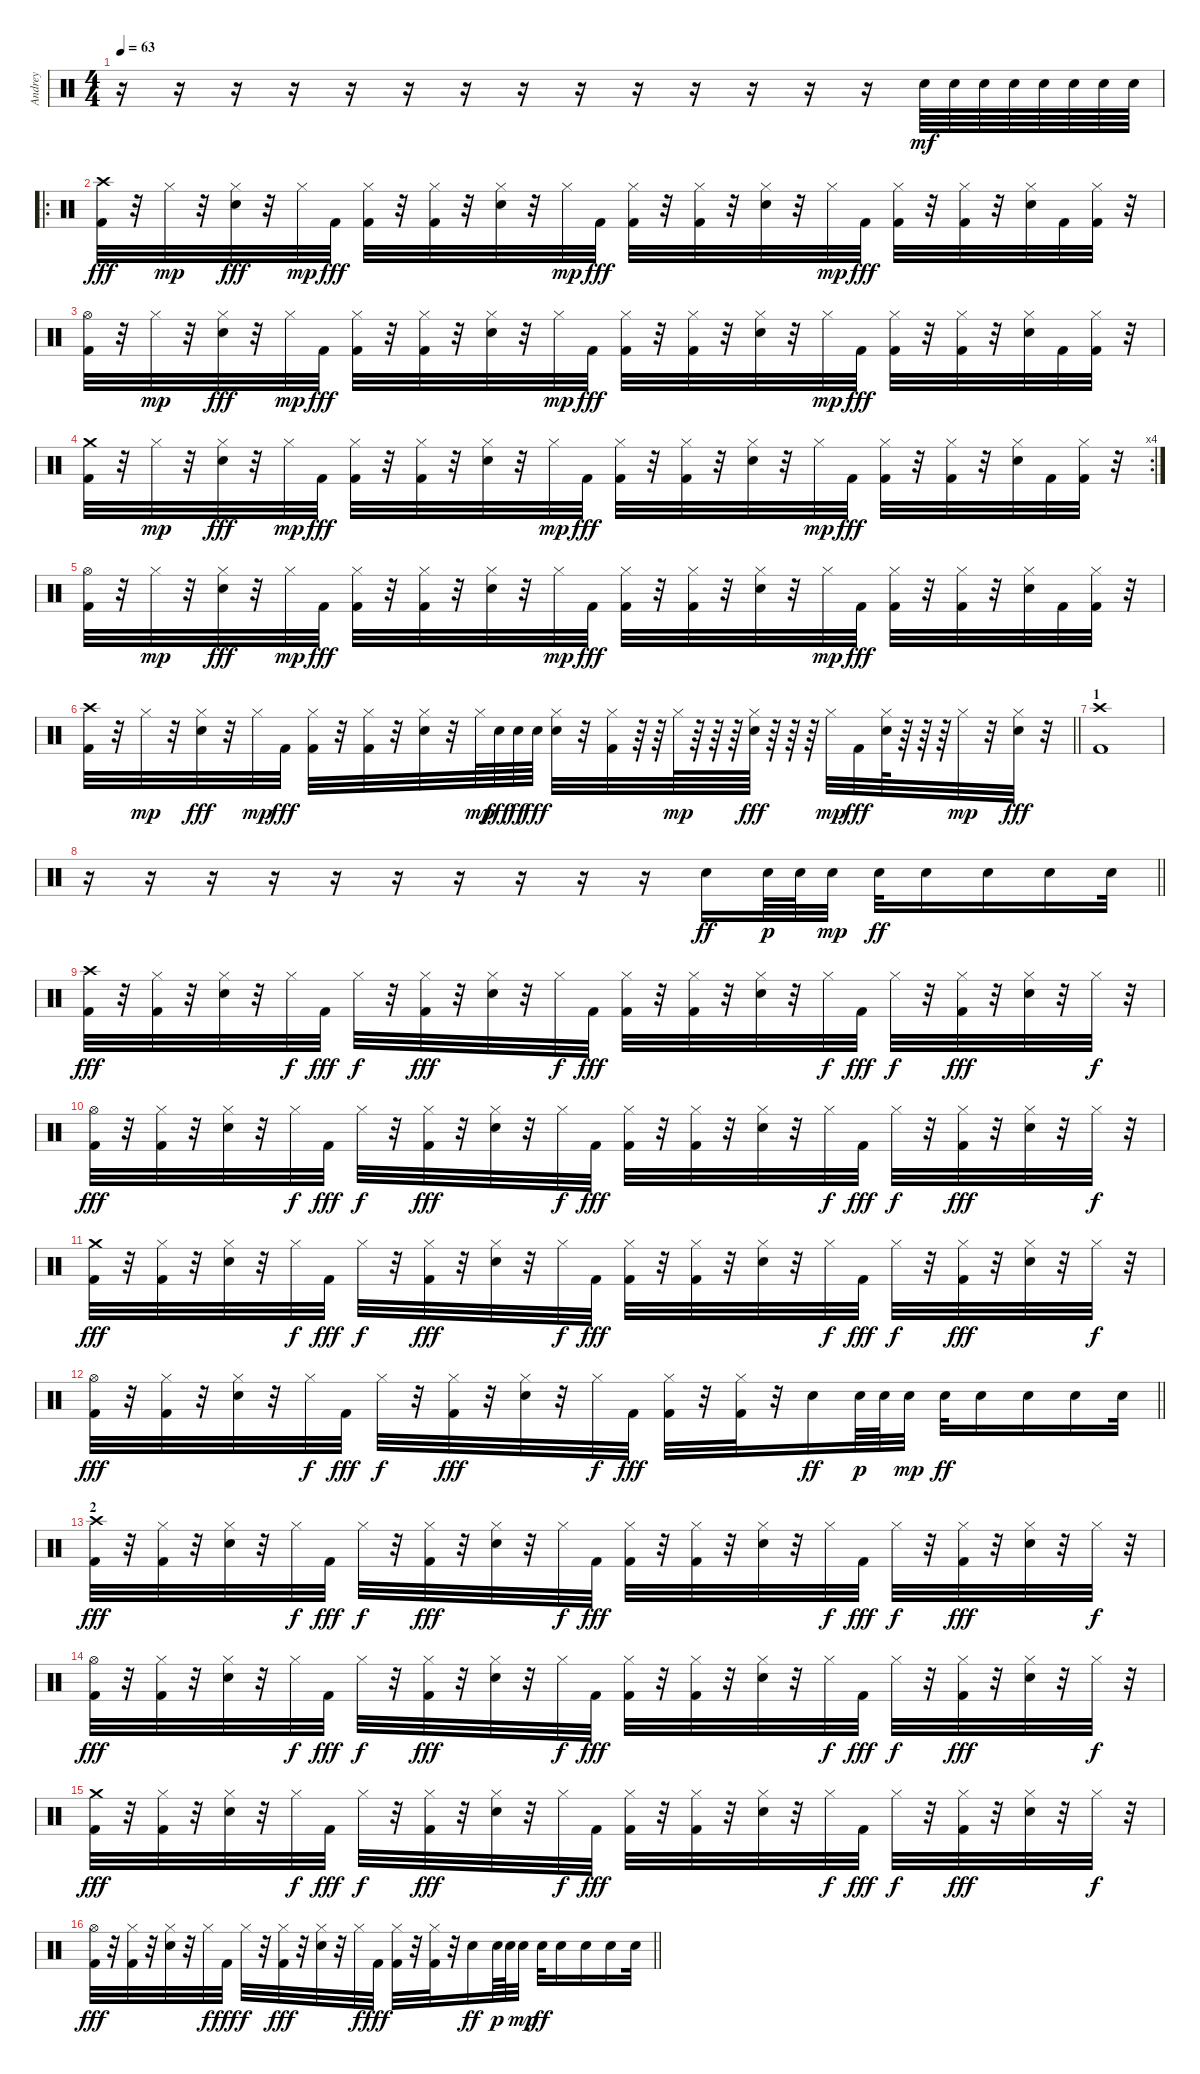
\track ("Andrey" "Andrey") {instrument percussion}
\staff {score}
\articulation defaults
\ts (4 4)
\tempo 63
\clef neutral
\ks c
r.16{dy ff} r.16 r.16 r.16 r.16 r.16 r.16 r.16 r.16 r.16 r.16 r.16 r.16 r.16 "Electric Snare (hit)".64{dy mf} "Electric Snare (hit)".64 "Electric Snare (hit)".64 "Electric Snare (hit)".64 "Electric Snare (hit)".64 "Electric Snare (hit)".64 "Electric Snare (hit)".64 "Electric Snare (hit)".64 |
\ro
("Crash high (hit)" "Kick (hit) 2").32{dy fff} r.32 "Hi-Hat (closed)".32{dy mp} r.32 ("Hi-Hat (closed)" "Snare (hit) 2").32{dy fff} r.32 "Hi-Hat (closed)".32{dy mp} "Kick (hit) 2".32{dy fff} ("Hi-Hat (closed)" "Kick (hit) 2").32 r.32 ("Hi-Hat (closed)" "Kick (hit) 2").32 r.32 ("Hi-Hat (closed)" "Snare (hit) 2").32 r.32 "Hi-Hat (closed)".32{dy mp} "Kick (hit) 2".32{dy fff} ("Hi-Hat (closed)" "Kick (hit) 2").32 r.32 ("Hi-Hat (closed)" "Kick (hit) 2").32 r.32 ("Hi-Hat (closed)" "Snare (hit) 2").32 r.32 "Hi-Hat (closed)".32{dy mp} "Kick (hit) 2".32{dy fff} ("Hi-Hat (closed)" "Kick (hit) 2").32 r.32 ("Hi-Hat (closed)" "Kick (hit) 2").32 r.32 ("Hi-Hat (closed)" "Snare (hit) 2").32 "Kick (hit) 2".32 ("Hi-Hat (closed)" "Kick (hit) 2").32 r.32 |
("Hi-Hat (open)" "Kick (hit) 2").32 r.32 "Hi-Hat (closed)".32{dy mp} r.32 ("Hi-Hat (closed)" "Snare (hit) 2").32{dy fff} r.32 "Hi-Hat (closed)".32{dy mp} "Kick (hit) 2".32{dy fff} ("Hi-Hat (closed)" "Kick (hit) 2").32 r.32 ("Hi-Hat (closed)" "Kick (hit) 2").32 r.32 ("Hi-Hat (closed)" "Snare (hit) 2").32 r.32 "Hi-Hat (closed)".32{dy mp} "Kick (hit) 2".32{dy fff} ("Hi-Hat (closed)" "Kick (hit) 2").32 r.32 ("Hi-Hat (closed)" "Kick (hit) 2").32 r.32 ("Hi-Hat (closed)" "Snare (hit) 2").32 r.32 "Hi-Hat (closed)".32{dy mp} "Kick (hit) 2".32{dy fff} ("Hi-Hat (closed)" "Kick (hit) 2").32 r.32 ("Hi-Hat (closed)" "Kick (hit) 2").32 r.32 ("Hi-Hat (closed)" "Snare (hit) 2").32 "Kick (hit) 2".32 ("Hi-Hat (closed)" "Kick (hit) 2").32 r.32 |
\rc 4
("Crash medium (hit)" "Kick (hit) 2").32 r.32 "Hi-Hat (closed)".32{dy mp} r.32 ("Hi-Hat (closed)" "Snare (hit) 2").32{dy fff} r.32 "Hi-Hat (closed)".32{dy mp} "Kick (hit) 2".32{dy fff} ("Hi-Hat (closed)" "Kick (hit) 2").32 r.32 ("Hi-Hat (closed)" "Kick (hit) 2").32 r.32 ("Hi-Hat (closed)" "Snare (hit) 2").32 r.32 "Hi-Hat (closed)".32{dy mp} "Kick (hit) 2".32{dy fff} ("Hi-Hat (closed)" "Kick (hit) 2").32 r.32 ("Hi-Hat (closed)" "Kick (hit) 2").32 r.32 ("Hi-Hat (closed)" "Snare (hit) 2").32 r.32 "Hi-Hat (closed)".32{dy mp} "Kick (hit) 2".32{dy fff} ("Hi-Hat (closed)" "Kick (hit) 2").32 r.32 ("Hi-Hat (closed)" "Kick (hit) 2").32 r.32 ("Hi-Hat (closed)" "Snare (hit) 2").32 "Kick (hit) 2".32 ("Hi-Hat (closed)" "Kick (hit) 2").32 r.32 |
("Hi-Hat (open)" "Kick (hit) 2").32 r.32 "Hi-Hat (closed)".32{dy mp} r.32 ("Hi-Hat (closed)" "Snare (hit) 2").32{dy fff} r.32 "Hi-Hat (closed)".32{dy mp} "Kick (hit) 2".32{dy fff} ("Hi-Hat (closed)" "Kick (hit) 2").32 r.32 ("Hi-Hat (closed)" "Kick (hit) 2").32 r.32 ("Hi-Hat (closed)" "Snare (hit) 2").32 r.32 "Hi-Hat (closed)".32{dy mp} "Kick (hit) 2".32{dy fff} ("Hi-Hat (closed)" "Kick (hit) 2").32 r.32 ("Hi-Hat (closed)" "Kick (hit) 2").32 r.32 ("Hi-Hat (closed)" "Snare (hit) 2").32 r.32 "Hi-Hat (closed)".32{dy mp} "Kick (hit) 2".32{dy fff} ("Hi-Hat (closed)" "Kick (hit) 2").32 r.32 ("Hi-Hat (closed)" "Kick (hit) 2").32 r.32 ("Hi-Hat (closed)" "Snare (hit) 2").32 "Kick (hit) 2".32 ("Hi-Hat (closed)" "Kick (hit) 2").32 r.32 |
\barLineRight lightlight
("Crash high (hit)" "Kick (hit) 2").32 r.32 "Hi-Hat (closed)".32{dy mp} r.32 ("Hi-Hat (closed)" "Snare (hit) 2").32{dy fff} r.32 "Hi-Hat (closed)".32{dy mp} "Kick (hit) 2".32{dy fff} ("Hi-Hat (closed)" "Kick (hit) 2").32 r.32 ("Hi-Hat (closed)" "Kick (hit) 2").32 r.32 ("Hi-Hat (closed)" "Snare (hit) 2").32 r.32 "Hi-Hat (closed)".64{dy mp} "Snare (hit) 2".64{dy fff} "Snare (hit) 2".64{dy ff} "Snare (hit) 2".64{dy fff} ("Hi-Hat (closed)" "Snare (hit) 2").32 r.32 ("Hi-Hat (closed)" "Kick (hit) 2").32 r.64 r.64 "Hi-Hat (closed)".64{dy mp} r.64 r.64 r.64 ("Hi-Hat (closed)" "Snare (hit) 2").64{dy fff} r.64 r.64 r.64 "Hi-Hat (closed)".32{dy mp} "Kick (hit) 2".32{dy fff} ("Hi-Hat (closed)" "Snare (hit) 2").64 r.64 r.64 r.64 "Hi-Hat (closed)".32{dy mp} r.32 ("Hi-Hat (closed)" "Snare (hit) 2").32{dy fff} r.32 |
\section ("" "1")
("Crash high (hit)" "Kick (hit) 2").1 |
\barLineRight lightlight
r.16 r.16 r.16 r.16 r.16 r.16 r.16 r.16 r.16 r.16 "Electric Snare (hit)".16{dy ff} "Electric Snare (hit)".64{dy p} "Electric Snare (hit)".64 "Electric Snare (hit)".32{dy mp} "Electric Snare (hit)".32{dy ff} "Electric Snare (hit)".16 "Electric Snare (hit)".16 "Electric Snare (hit)".16 "Electric Snare (hit)".32 |
("Crash high (hit)" "Kick (hit) 2").32{dy fff} r.32 ("Hi-Hat (closed)" "Kick (hit) 2").32 r.32 ("Hi-Hat (closed)" "Snare (hit) 2").32 r.32 "Hi-Hat (closed)".32{dy f} "Kick (hit) 2".32{dy fff} "Hi-Hat (closed)".32{dy f} r.32 ("Hi-Hat (closed)" "Kick (hit) 2").32{dy fff} r.32 ("Hi-Hat (closed)" "Snare (hit) 2").32 r.32 "Hi-Hat (closed)".32{dy f} "Kick (hit) 2".32{dy fff} ("Hi-Hat (closed)" "Kick (hit) 2").32 r.32 ("Hi-Hat (closed)" "Kick (hit) 2").32 r.32 ("Hi-Hat (closed)" "Snare (hit) 2").32 r.32 "Hi-Hat (closed)".32{dy f} "Kick (hit) 2".32{dy fff} "Hi-Hat (closed)".32{dy f} r.32 ("Hi-Hat (closed)" "Kick (hit) 2").32{dy fff} r.32 ("Hi-Hat (closed)" "Snare (hit) 2").32 r.32 "Hi-Hat (closed)".32{dy f} r.32 |
("Hi-Hat (open)" "Kick (hit) 2").32{dy fff} r.32 ("Hi-Hat (closed)" "Kick (hit) 2").32 r.32 ("Hi-Hat (closed)" "Snare (hit) 2").32 r.32 "Hi-Hat (closed)".32{dy f} "Kick (hit) 2".32{dy fff} "Hi-Hat (closed)".32{dy f} r.32 ("Hi-Hat (closed)" "Kick (hit) 2").32{dy fff} r.32 ("Hi-Hat (closed)" "Snare (hit) 2").32 r.32 "Hi-Hat (closed)".32{dy f} "Kick (hit) 2".32{dy fff} ("Hi-Hat (closed)" "Kick (hit) 2").32 r.32 ("Hi-Hat (closed)" "Kick (hit) 2").32 r.32 ("Hi-Hat (closed)" "Snare (hit) 2").32 r.32 "Hi-Hat (closed)".32{dy f} "Kick (hit) 2".32{dy fff} "Hi-Hat (closed)".32{dy f} r.32 ("Hi-Hat (closed)" "Kick (hit) 2").32{dy fff} r.32 ("Hi-Hat (closed)" "Snare (hit) 2").32 r.32 "Hi-Hat (closed)".32{dy f} r.32 |
("Crash medium (hit)" "Kick (hit) 2").32{dy fff} r.32 ("Hi-Hat (closed)" "Kick (hit) 2").32 r.32 ("Hi-Hat (closed)" "Snare (hit) 2").32 r.32 "Hi-Hat (closed)".32{dy f} "Kick (hit) 2".32{dy fff} "Hi-Hat (closed)".32{dy f} r.32 ("Hi-Hat (closed)" "Kick (hit) 2").32{dy fff} r.32 ("Hi-Hat (closed)" "Snare (hit) 2").32 r.32 "Hi-Hat (closed)".32{dy f} "Kick (hit) 2".32{dy fff} ("Hi-Hat (closed)" "Kick (hit) 2").32 r.32 ("Hi-Hat (closed)" "Kick (hit) 2").32 r.32 ("Hi-Hat (closed)" "Snare (hit) 2").32 r.32 "Hi-Hat (closed)".32{dy f} "Kick (hit) 2".32{dy fff} "Hi-Hat (closed)".32{dy f} r.32 ("Hi-Hat (closed)" "Kick (hit) 2").32{dy fff} r.32 ("Hi-Hat (closed)" "Snare (hit) 2").32 r.32 "Hi-Hat (closed)".32{dy f} r.32 |
\barLineRight lightlight
("Hi-Hat (open)" "Kick (hit) 2").32{dy fff} r.32 ("Hi-Hat (closed)" "Kick (hit) 2").32 r.32 ("Hi-Hat (closed)" "Snare (hit) 2").32 r.32 "Hi-Hat (closed)".32{dy f} "Kick (hit) 2".32{dy fff} "Hi-Hat (closed)".32{dy f} r.32 ("Hi-Hat (closed)" "Kick (hit) 2").32{dy fff} r.32 ("Hi-Hat (closed)" "Snare (hit) 2").32 r.32 "Hi-Hat (closed)".32{dy f} "Kick (hit) 2".32{dy fff} ("Hi-Hat (closed)" "Kick (hit) 2").32 r.32 ("Hi-Hat (closed)" "Kick (hit) 2").32 r.32 "Electric Snare (hit)".16{dy ff} "Electric Snare (hit)".64{dy p} "Electric Snare (hit)".64 "Electric Snare (hit)".32{dy mp} "Electric Snare (hit)".32{dy ff} "Electric Snare (hit)".16 "Electric Snare (hit)".16 "Electric Snare (hit)".16 "Electric Snare (hit)".32 |
\section ("" "2")
("Crash high (hit)" "Kick (hit) 2").32{dy fff} r.32 ("Hi-Hat (closed)" "Kick (hit) 2").32 r.32 ("Hi-Hat (closed)" "Snare (hit) 2").32 r.32 "Hi-Hat (closed)".32{dy f} "Kick (hit) 2".32{dy fff} "Hi-Hat (closed)".32{dy f} r.32 ("Hi-Hat (closed)" "Kick (hit) 2").32{dy fff} r.32 ("Hi-Hat (closed)" "Snare (hit) 2").32 r.32 "Hi-Hat (closed)".32{dy f} "Kick (hit) 2".32{dy fff} ("Hi-Hat (closed)" "Kick (hit) 2").32 r.32 ("Hi-Hat (closed)" "Kick (hit) 2").32 r.32 ("Hi-Hat (closed)" "Snare (hit) 2").32 r.32 "Hi-Hat (closed)".32{dy f} "Kick (hit) 2".32{dy fff} "Hi-Hat (closed)".32{dy f} r.32 ("Hi-Hat (closed)" "Kick (hit) 2").32{dy fff} r.32 ("Hi-Hat (closed)" "Snare (hit) 2").32 r.32 "Hi-Hat (closed)".32{dy f} r.32 |
("Hi-Hat (open)" "Kick (hit) 2").32{dy fff} r.32 ("Hi-Hat (closed)" "Kick (hit) 2").32 r.32 ("Hi-Hat (closed)" "Snare (hit) 2").32 r.32 "Hi-Hat (closed)".32{dy f} "Kick (hit) 2".32{dy fff} "Hi-Hat (closed)".32{dy f} r.32 ("Hi-Hat (closed)" "Kick (hit) 2").32{dy fff} r.32 ("Hi-Hat (closed)" "Snare (hit) 2").32 r.32 "Hi-Hat (closed)".32{dy f} "Kick (hit) 2".32{dy fff} ("Hi-Hat (closed)" "Kick (hit) 2").32 r.32 ("Hi-Hat (closed)" "Kick (hit) 2").32 r.32 ("Hi-Hat (closed)" "Snare (hit) 2").32 r.32 "Hi-Hat (closed)".32{dy f} "Kick (hit) 2".32{dy fff} "Hi-Hat (closed)".32{dy f} r.32 ("Hi-Hat (closed)" "Kick (hit) 2").32{dy fff} r.32 ("Hi-Hat (closed)" "Snare (hit) 2").32 r.32 "Hi-Hat (closed)".32{dy f} r.32 |
("Crash medium (hit)" "Kick (hit) 2").32{dy fff} r.32 ("Hi-Hat (closed)" "Kick (hit) 2").32 r.32 ("Hi-Hat (closed)" "Snare (hit) 2").32 r.32 "Hi-Hat (closed)".32{dy f} "Kick (hit) 2".32{dy fff} "Hi-Hat (closed)".32{dy f} r.32 ("Hi-Hat (closed)" "Kick (hit) 2").32{dy fff} r.32 ("Hi-Hat (closed)" "Snare (hit) 2").32 r.32 "Hi-Hat (closed)".32{dy f} "Kick (hit) 2".32{dy fff} ("Hi-Hat (closed)" "Kick (hit) 2").32 r.32 ("Hi-Hat (closed)" "Kick (hit) 2").32 r.32 ("Hi-Hat (closed)" "Snare (hit) 2").32 r.32 "Hi-Hat (closed)".32{dy f} "Kick (hit) 2".32{dy fff} "Hi-Hat (closed)".32{dy f} r.32 ("Hi-Hat (closed)" "Kick (hit) 2").32{dy fff} r.32 ("Hi-Hat (closed)" "Snare (hit) 2").32 r.32 "Hi-Hat (closed)".32{dy f} r.32 |
\barLineRight lightlight
("Hi-Hat (open)" "Kick (hit) 2").32{dy fff} r.32 ("Hi-Hat (closed)" "Kick (hit) 2").32 r.32 ("Hi-Hat (closed)" "Snare (hit) 2").32 r.32 "Hi-Hat (closed)".32{dy f} "Kick (hit) 2".32{dy fff} "Hi-Hat (closed)".32{dy f} r.32 ("Hi-Hat (closed)" "Kick (hit) 2").32{dy fff} r.32 ("Hi-Hat (closed)" "Snare (hit) 2").32 r.32 "Hi-Hat (closed)".32{dy f} "Kick (hit) 2".32{dy fff} ("Hi-Hat (closed)" "Kick (hit) 2").32 r.32 ("Hi-Hat (closed)" "Kick (hit) 2").32 r.32 "Electric Snare (hit)".16{dy ff} "Electric Snare (hit)".64{dy p} "Electric Snare (hit)".64 "Electric Snare (hit)".32{dy mp} "Electric Snare (hit)".32{dy ff} "Electric Snare (hit)".16 "Electric Snare (hit)".16 "Electric Snare (hit)".16 "Electric Snare (hit)".32
